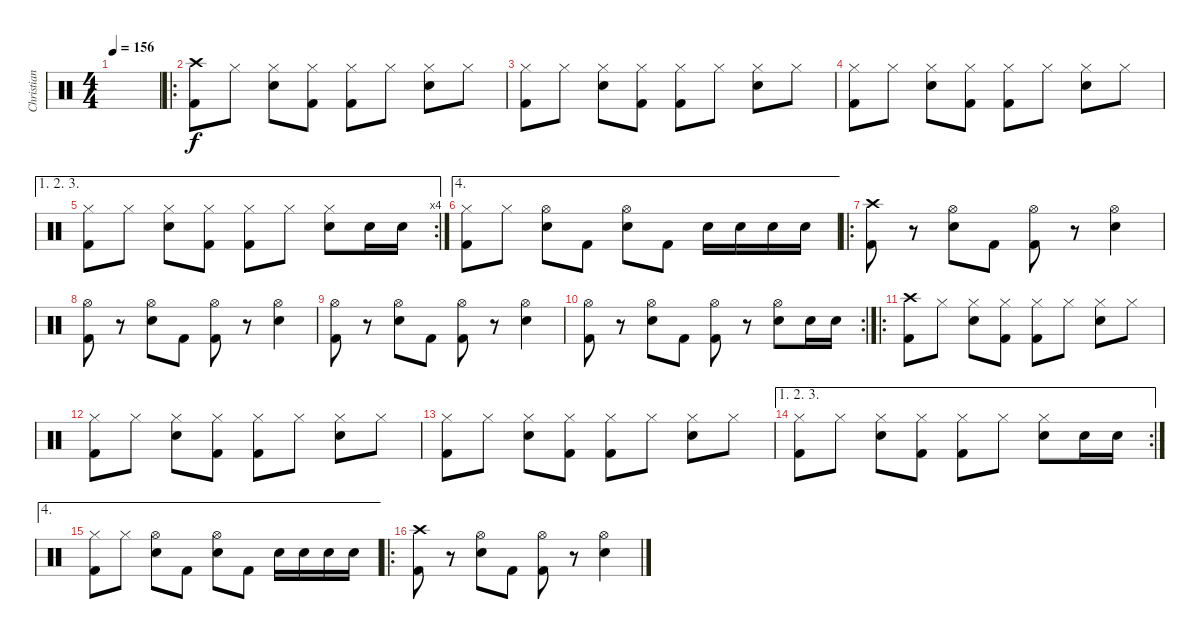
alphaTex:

\track ("Christian" "Christian") {instrument percussion}
\staff {score}
\articulation defaults
\ts (4 4)
\tempo 156
\clef neutral
\ks c
|
\ro
("Crash high (hit)" "Kick (hit) 2").8 "Hi-Hat (closed)".8 ("Hi-Hat (closed)" "Snare (hit) 2").8 ("Hi-Hat (closed)" "Kick (hit) 2").8 ("Hi-Hat (closed)" "Kick (hit) 2").8 "Hi-Hat (closed)".8 ("Hi-Hat (closed)" "Snare (hit) 2").8 "Hi-Hat (closed)".8 |
("Hi-Hat (closed)" "Kick (hit) 2").8 "Hi-Hat (closed)".8 ("Hi-Hat (closed)" "Snare (hit) 2").8 ("Hi-Hat (closed)" "Kick (hit) 2").8 ("Hi-Hat (closed)" "Kick (hit) 2").8 "Hi-Hat (closed)".8 ("Hi-Hat (closed)" "Snare (hit) 2").8 "Hi-Hat (closed)".8 |
("Hi-Hat (closed)" "Kick (hit) 2").8 "Hi-Hat (closed)".8 ("Hi-Hat (closed)" "Snare (hit) 2").8 ("Hi-Hat (closed)" "Kick (hit) 2").8 ("Hi-Hat (closed)" "Kick (hit) 2").8 "Hi-Hat (closed)".8 ("Hi-Hat (closed)" "Snare (hit) 2").8 "Hi-Hat (closed)".8 |
\ae (1 2 3)
\rc 4
("Hi-Hat (closed)" "Kick (hit) 2").8 "Hi-Hat (closed)".8 ("Hi-Hat (closed)" "Snare (hit) 2").8 ("Hi-Hat (closed)" "Kick (hit) 2").8 ("Hi-Hat (closed)" "Kick (hit) 2").8 "Hi-Hat (closed)".8 ("Hi-Hat (closed)" "Snare (hit) 2").8 "Snare (hit) 2".16 "Snare (hit) 2".16 |
\ae 4
("Hi-Hat (closed)" "Kick (hit) 2").8 "Hi-Hat (closed)".8 ("Hi-Hat (open)" "Snare (hit) 2").8 "Kick (hit) 2".8 ("Hi-Hat (open)" "Snare (hit) 2").8 "Kick (hit) 2".8 "Snare (hit) 2".16 "Snare (hit) 2".16 "Snare (hit) 2".16 "Snare (hit) 2".16 |
\ro
("Crash high (hit)" "Kick (hit) 2").8 r.8 ("Hi-Hat (open)" "Snare (hit) 2").8 "Kick (hit) 2".8 ("Hi-Hat (open)" "Kick (hit) 2").8 r.8 ("Hi-Hat (open)" "Snare (hit) 2").4 |
("Hi-Hat (open)" "Kick (hit) 2").8 r.8 ("Hi-Hat (open)" "Snare (hit) 2").8 "Kick (hit) 2".8 ("Hi-Hat (open)" "Kick (hit) 2").8 r.8 ("Hi-Hat (open)" "Snare (hit) 2").4 |
("Hi-Hat (open)" "Kick (hit) 2").8 r.8 ("Hi-Hat (open)" "Snare (hit) 2").8 "Kick (hit) 2".8 ("Hi-Hat (open)" "Kick (hit) 2").8 r.8 ("Hi-Hat (open)" "Snare (hit) 2").4 |
\rc 2
("Hi-Hat (open)" "Kick (hit) 2").8 r.8 ("Hi-Hat (open)" "Snare (hit) 2").8 "Kick (hit) 2".8 ("Hi-Hat (open)" "Kick (hit) 2").8 r.8 ("Hi-Hat (open)" "Snare (hit) 2").8 "Snare (hit) 2".16 "Snare (hit) 2".16 |
\ro
("Crash high (hit)" "Kick (hit) 2").8 "Hi-Hat (closed)".8 ("Hi-Hat (closed)" "Snare (hit) 2").8 ("Hi-Hat (closed)" "Kick (hit) 2").8 ("Hi-Hat (closed)" "Kick (hit) 2").8 "Hi-Hat (closed)".8 ("Hi-Hat (closed)" "Snare (hit) 2").8 "Hi-Hat (closed)".8 |
("Hi-Hat (closed)" "Kick (hit) 2").8 "Hi-Hat (closed)".8 ("Hi-Hat (closed)" "Snare (hit) 2").8 ("Hi-Hat (closed)" "Kick (hit) 2").8 ("Hi-Hat (closed)" "Kick (hit) 2").8 "Hi-Hat (closed)".8 ("Hi-Hat (closed)" "Snare (hit) 2").8 "Hi-Hat (closed)".8 |
("Hi-Hat (closed)" "Kick (hit) 2").8 "Hi-Hat (closed)".8 ("Hi-Hat (closed)" "Snare (hit) 2").8 ("Hi-Hat (closed)" "Kick (hit) 2").8 ("Hi-Hat (closed)" "Kick (hit) 2").8 "Hi-Hat (closed)".8 ("Hi-Hat (closed)" "Snare (hit) 2").8 "Hi-Hat (closed)".8 |
\ae (1 2 3)
\rc 2
("Hi-Hat (closed)" "Kick (hit) 2").8 "Hi-Hat (closed)".8 ("Hi-Hat (closed)" "Snare (hit) 2").8 ("Hi-Hat (closed)" "Kick (hit) 2").8 ("Hi-Hat (closed)" "Kick (hit) 2").8 "Hi-Hat (closed)".8 ("Hi-Hat (closed)" "Snare (hit) 2").8 "Snare (hit) 2".16 "Snare (hit) 2".16 |
\ae 4
("Hi-Hat (closed)" "Kick (hit) 2").8 "Hi-Hat (closed)".8 ("Hi-Hat (open)" "Snare (hit) 2").8 "Kick (hit) 2".8 ("Hi-Hat (open)" "Snare (hit) 2").8 "Kick (hit) 2".8 "Snare (hit) 2".16 "Snare (hit) 2".16 "Snare (hit) 2".16 "Snare (hit) 2".16 |
\ro
("Crash high (hit)" "Kick (hit) 2").8 r.8 ("Hi-Hat (open)" "Snare (hit) 2").8 "Kick (hit) 2".8 ("Hi-Hat (open)" "Kick (hit) 2").8 r.8 ("Hi-Hat (open)" "Snare (hit) 2").4
